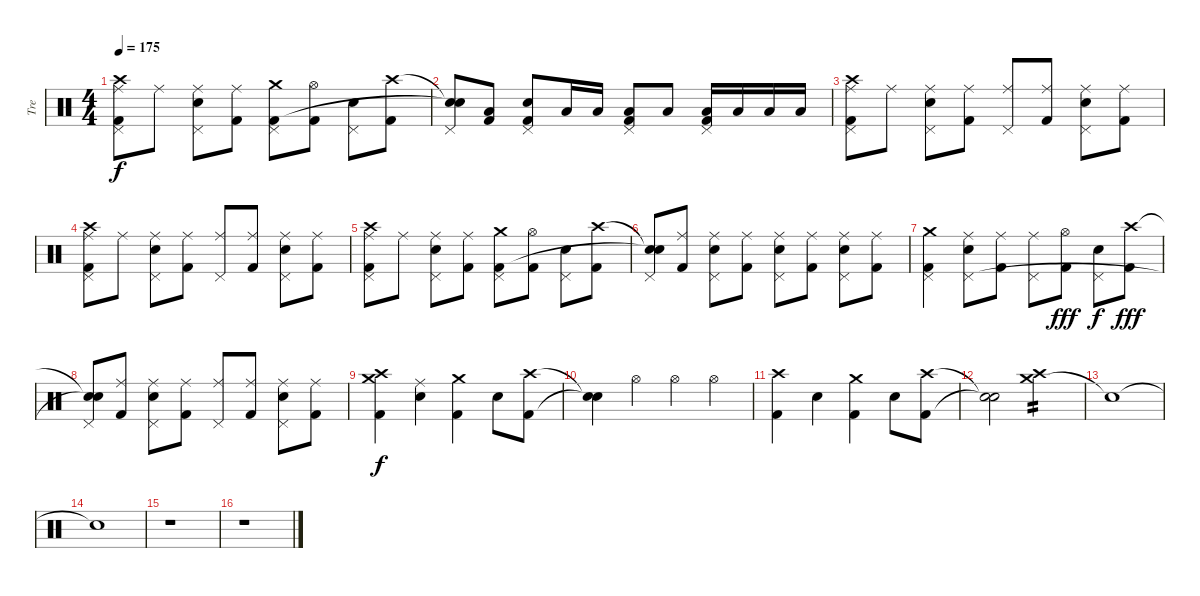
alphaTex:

\track ("Tre" "Tre") {instrument percussion}
\staff {score}
\articulation defaults
\ts (4 4)
\tempo 175
\clef neutral
\ks c
("Crash high (hit)" "Ride (middle)" "Pedal Hi-Hat (hit)" "Kick (hit) 2").8{dy f} "Ride (middle)".8 ("Ride (middle)" "Snare (hit) 2" "Pedal Hi-Hat (hit)").8 ("Ride (middle)" "Kick (hit) 2").8 ("Crash medium (hit)" "Pedal Hi-Hat (hit)" "Kick (hit) 2").8 ("Hi-Hat (open)" "Kick (hit) 2").8 ("Snare (hit) 2" "Pedal Hi-Hat (hit)").8 ("Crash high (hit)" "Kick (hit) 2").8 |
("Snare (hit)"{t} "Pedal Hi-Hat (hit)" "Snare (hit)"{t}).8 ("Low Tom (hit)" "Kick (hit) 2").8 ("Snare (hit) 2" "Pedal Hi-Hat (hit)" "Kick (hit) 2").8 "Low Tom (hit)".16 "Low Tom (hit)".16 ("Low Tom (hit)" "Pedal Hi-Hat (hit)" "Kick (hit) 2").8 "Low Tom (hit)".8 ("Low Floor Tom (hit)" "Pedal Hi-Hat (hit)" "Kick (hit) 2").16 "Low Floor Tom (hit)".16 "Low Floor Tom (hit)".16 "Low Floor Tom (hit)".16 |
("Crash high (hit)" "Ride (middle)" "Pedal Hi-Hat (hit)" "Kick (hit) 2").8 "Ride (middle)".8 ("Ride (middle)" "Snare (hit) 2" "Pedal Hi-Hat (hit)").8 ("Ride (middle)" "Kick (hit) 2").8 ("Ride (middle)" "Pedal Hi-Hat (hit)").8 ("Ride (middle)" "Kick (hit) 2").8 ("Ride (middle)" "Snare (hit) 2" "Pedal Hi-Hat (hit)").8 ("Ride (middle)" "Kick (hit) 2").8 |
("Crash high (hit)" "Ride (middle)" "Pedal Hi-Hat (hit)" "Kick (hit) 2").8 "Ride (middle)".8 ("Ride (middle)" "Snare (hit) 2" "Pedal Hi-Hat (hit)").8 ("Ride (middle)" "Kick (hit) 2").8 ("Ride (middle)" "Pedal Hi-Hat (hit)").8 ("Ride (middle)" "Kick (hit) 2").8 ("Ride (middle)" "Snare (hit) 2" "Pedal Hi-Hat (hit)").8 ("Ride (middle)" "Kick (hit) 2").8 |
("Crash high (hit)" "Ride (middle)" "Pedal Hi-Hat (hit)" "Kick (hit) 2").8 "Ride (middle)".8 ("Ride (middle)" "Snare (hit) 2" "Pedal Hi-Hat (hit)").8 ("Ride (middle)" "Kick (hit) 2").8 ("Crash medium (hit)" "Pedal Hi-Hat (hit)" "Kick (hit) 2").8 ("Hi-Hat (open)" "Kick (hit) 2").8 ("Snare (hit) 2" "Pedal Hi-Hat (hit)").8 ("Crash high (hit)" "Kick (hit) 2").8 |
("Snare (hit)"{t} "Pedal Hi-Hat (hit)" "Snare (hit)"{t}).8 ("Ride (middle)" "Kick (hit) 2").8 ("Ride (middle)" "Snare (hit) 2" "Pedal Hi-Hat (hit)").8 ("Ride (middle)" "Kick (hit) 2").8 ("Ride (middle)" "Snare (hit) 2" "Pedal Hi-Hat (hit)").8 ("Ride (middle)" "Kick (hit) 2").8 ("Ride (middle)" "Snare (hit) 2" "Pedal Hi-Hat (hit)").8 ("Ride (middle)" "Kick (hit) 2").8 |
("Crash medium (hit)" "Pedal Hi-Hat (hit)" "Kick (hit) 2").4 ("Ride (middle)" "Snare (hit) 2" "Pedal Hi-Hat (hit)").8 ("Ride (middle)" "Kick (hit) 2").8 ("Ride (middle)" "Pedal Hi-Hat (hit)").8 ("Hi-Hat (open)" "Kick (hit) 2").8{dy fff} ("Snare (hit) 2" "Pedal Hi-Hat (hit)").8{dy f} ("Crash high (hit)" "Kick (hit) 2").8{dy fff} |
("Snare (hit)"{t} "Pedal Hi-Hat (hit)" "Snare (hit)"{t}).8 ("Ride (middle)" "Kick (hit) 2").8 ("Ride (middle)" "Snare (hit) 2" "Pedal Hi-Hat (hit)").8 ("Ride (middle)" "Kick (hit) 2").8 ("Ride (middle)" "Pedal Hi-Hat (hit)").8 ("Ride (middle)" "Kick (hit) 2").8 ("Ride (middle)" "Snare (hit) 2" "Pedal Hi-Hat (hit)").8 ("Ride (middle)" "Kick (hit) 2").8 |
("Crash high (hit)" "Crash medium (hit)" "Kick (hit) 2").4{dy f} ("Ride (middle)" "Snare (hit) 2").4 ("Crash medium (hit)" "Kick (hit) 2").4 "Snare (hit) 2".8 ("Crash high (hit)" "Kick (hit) 2").8 |
("Snare (hit)"{t} "Snare (hit)"{t}).4 "Hi-Hat (open)".4 "Hi-Hat (open)".4 "Hi-Hat (open)".4 |
("Crash high (hit)" "Kick (hit) 2").4 "Snare (hit) 2".4 ("Crash medium (hit)" "Kick (hit) 2").4 "Snare (hit) 2".8 ("Crash high (hit)" "Kick (hit) 2").8 |
("Snare (hit)"{t} "Snare (hit)"{t}).2 ("Crash medium (hit)" "Crash high (hit)").2{tp 2} |
"Snare (hit)"{t}.1 |
"Snare (hit)"{t}.1 |
r.1 |
r.1
